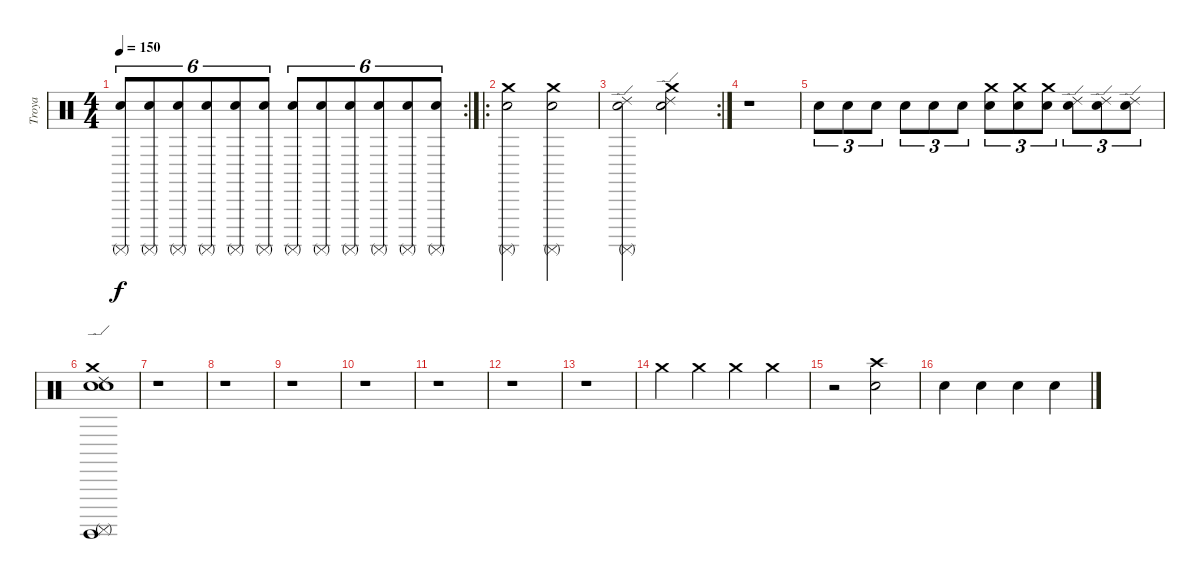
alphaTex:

\track ("Troya" "Troya") {instrument percussion}
\staff {score}
\articulation defaults
\rc 2
\ts (4 4)
\tempo 150
\clef neutral
\ks c
("Electric Snare (hit)" "Surdo (mute)").8{tu (6 4) dy f} ("Electric Snare (hit)" "Surdo (mute)").8{tu (6 4)} ("Electric Snare (hit)" "Surdo (mute)").8{tu (6 4)} ("Electric Snare (hit)" "Surdo (mute)").8{tu (6 4)} ("Electric Snare (hit)" "Surdo (mute)").8{tu (6 4)} ("Electric Snare (hit)" "Surdo (mute)").8{tu (6 4)} ("Electric Snare (hit)" "Surdo (mute)").8{tu (6 4)} ("Electric Snare (hit)" "Surdo (mute)").8{tu (6 4)} ("Electric Snare (hit)" "Surdo (mute)").8{tu (6 4)} ("Electric Snare (hit)" "Surdo (mute)").8{tu (6 4)} ("Electric Snare (hit)" "Surdo (mute)").8{tu (6 4)} ("Electric Snare (hit)" "Surdo (mute)").8{tu (6 4)} |
\ro
("Crash medium (hit)" "Surdo (mute)" "Electric Snare (hit)").2 ("Crash medium (hit)" "Surdo (mute)" "Electric Snare (hit)").2 |
\rc 2
("Ride (edge) 2" "Surdo (mute)" "Electric Snare (hit)").2 ("Ride (edge) 2" "Crash medium (hit)" "Electric Snare (hit)").2 |
r.1 |
"Electric Snare (hit)".8{tu (3 2)} "Electric Snare (hit)".8{tu (3 2)} "Electric Snare (hit)".8{tu (3 2)} "Electric Snare (hit)".8{tu (3 2)} "Electric Snare (hit)".8{tu (3 2)} "Electric Snare (hit)".8{tu (3 2)} ("Crash medium (hit)" "Electric Snare (hit)").8{tu (3 2)} ("Crash medium (hit)" "Electric Snare (hit)").8{tu (3 2)} ("Crash medium (hit)" "Electric Snare (hit)").8{tu (3 2)} ("Ride (edge) 2" "Electric Snare (hit)").8{tu (3 2)} ("Ride (edge) 2" "Electric Snare (hit)").8{tu (3 2)} ("Ride (edge) 2" "Electric Snare (hit)").8{tu (3 2)} |
("Electric Snare (hit)" "Surdo (hit)" "Surdo (mute)" "Ride (edge) 2" "Crash medium (hit)" "Electric Snare (hit)").1 |
r.1 |
r.1 |
r.1 |
r.1 |
r.1 |
r.1 |
r.1 |
"Crash medium (hit)".4 "Crash medium (hit)".4 "Crash medium (hit)".4 "Crash medium (hit)".4 |
r.2 ("Crash high (hit)" "Snare (hit) 2").2 |
"Snare (hit) 2".4 "Snare (hit) 2".4 "Snare (hit) 2".4 "Snare (hit) 2".4
